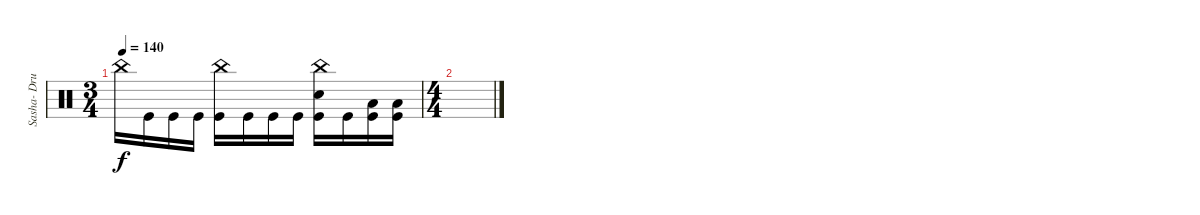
\track ("Sasha- Drums" "Sasha- Dru") {instrument percussion}
\staff {score}
\articulation defaults
\ts (3 4)
\tempo 140
\clef neutral
\ks c "China (hit)".16{dy f} "Kick (hit)".16 "Kick (hit)".16 "Kick (hit)".16
("Kick (hit)" "China (hit)").16 "Kick (hit)".16 "Kick (hit)".16 "Kick (hit)".16 ("Kick (hit)" "China (hit)" "Snare (hit) 2").16 "Kick (hit)".16 ("Kick (hit)" "Low Tom (hit)").16 ("Kick (hit)" "Low Tom (hit)").16 |
\ts (4 4)
